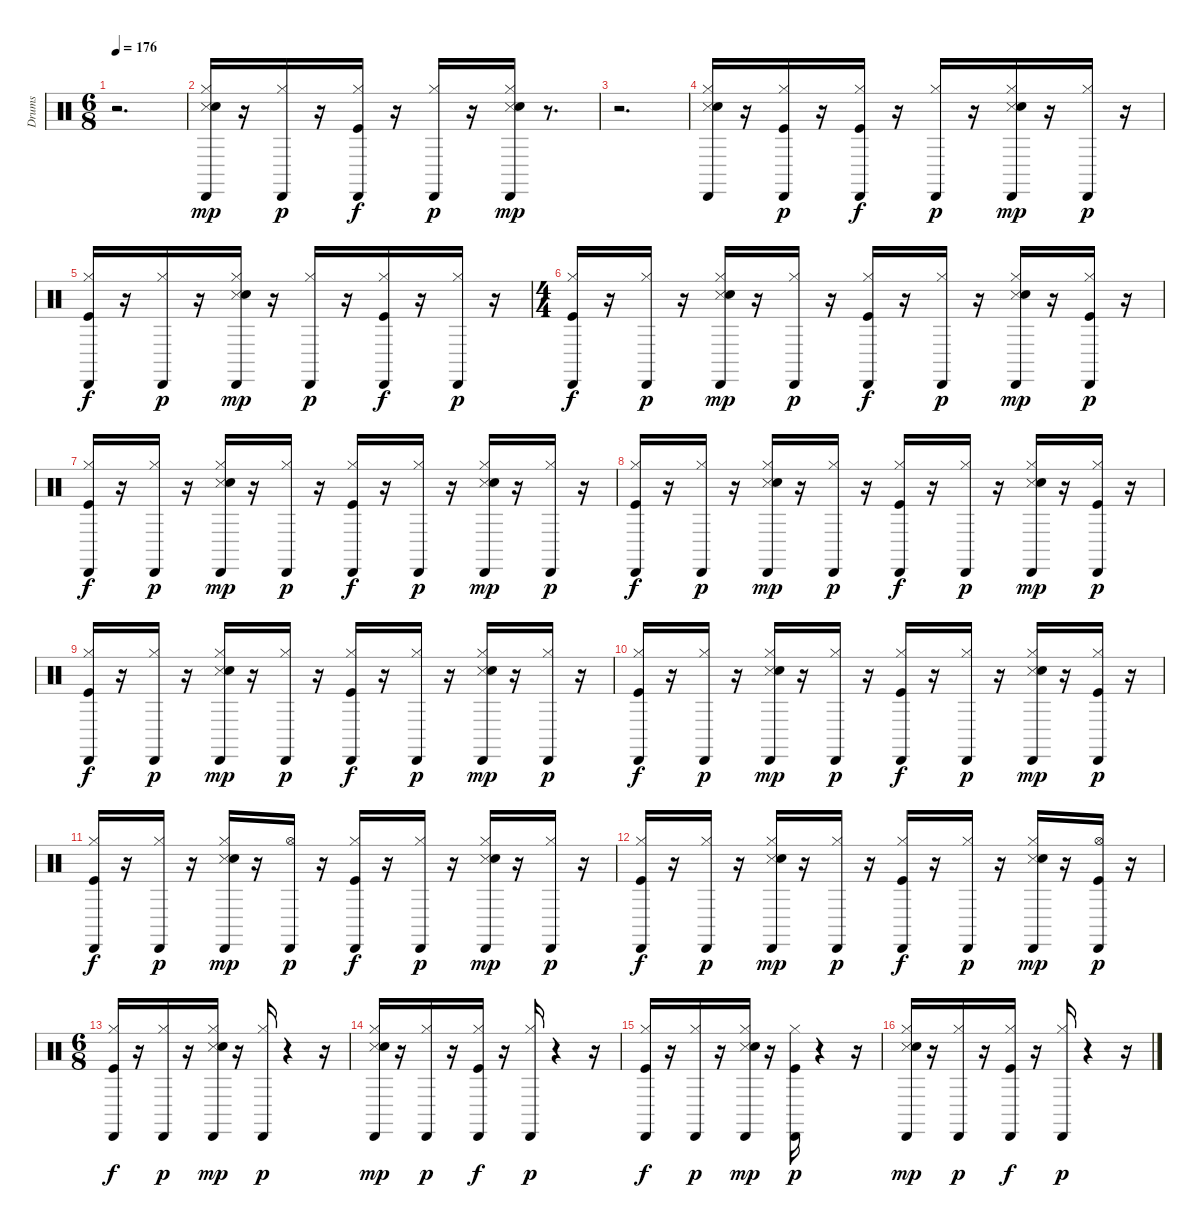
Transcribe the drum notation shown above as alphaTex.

\track ("Drums" "Drums") {instrument percussion}
\staff {score}
\articulation defaults
\ts (6 8)
\tempo 176
\clef neutral
\ks c
r.2{d dy p} |
("Hi-Hat (closed)" "Snare (side stick) 3" "Hand Clap (hit)" "Cabasa (hit)").16{dy mp} r.16 ("Hi-Hat (closed)" "Cabasa (hit)").16{dy p} r.16 ("Kick (hit)" "Hi-Hat (closed)" "Cabasa (hit)").16{dy f} r.16 ("Hi-Hat (closed)" "Cabasa (hit)").16{dy p} r.16 ("Hi-Hat (closed)" "Snare (side stick) 3" "Hand Clap (hit)" "Cabasa (hit)").16{dy mp} r.8{d} |
r.2{d} |
("Hi-Hat (closed)" "Snare (side stick) 3" "Hand Clap (hit)" "Cabasa (hit)").16 r.16 ("Kick (hit)" "Hi-Hat (closed)" "Cabasa (hit)").16{dy p} r.16 ("Kick (hit)" "Hi-Hat (closed)" "Cabasa (hit)").16{dy f} r.16 ("Hi-Hat (closed)" "Cabasa (hit)").16{dy p} r.16 ("Hi-Hat (closed)" "Snare (side stick) 3" "Hand Clap (hit)" "Cabasa (hit)").16{dy mp} r.16 ("Hi-Hat (closed)" "Cabasa (hit)").16{dy p} r.16 |
("Kick (hit)" "Hi-Hat (closed)" "Cabasa (hit)").16{dy f} r.16 ("Hi-Hat (closed)" "Cabasa (hit)").16{dy p} r.16 ("Hi-Hat (closed)" "Snare (side stick) 3" "Hand Clap (hit)" "Cabasa (hit)").16{dy mp} r.16 ("Hi-Hat (closed)" "Cabasa (hit)").16{dy p} r.16 ("Kick (hit)" "Hi-Hat (closed)" "Cabasa (hit)").16{dy f} r.16 ("Hi-Hat (closed)" "Cabasa (hit)").16{dy p} r.16 |
\ts (4 4)
("Kick (hit)" "Hi-Hat (closed)" "Cabasa (hit)").16{dy f} r.16 ("Hi-Hat (closed)" "Cabasa (hit)").16{dy p} r.16 ("Hi-Hat (closed)" "Snare (side stick) 3" "Hand Clap (hit)" "Cabasa (hit)").16{dy mp} r.16 ("Hi-Hat (closed)" "Cabasa (hit)").16{dy p} r.16 ("Kick (hit)" "Hi-Hat (closed)" "Cabasa (hit)").16{dy f} r.16 ("Hi-Hat (closed)" "Cabasa (hit)").16{dy p} r.16 ("Hi-Hat (closed)" "Snare (side stick) 3" "Hand Clap (hit)" "Cabasa (hit)").16{dy mp} r.16 ("Kick (hit)" "Hi-Hat (closed)" "Cabasa (hit)").16{dy p} r.16 |
("Kick (hit)" "Hi-Hat (closed)" "Cabasa (hit)").16{dy f} r.16 ("Hi-Hat (closed)" "Cabasa (hit)").16{dy p} r.16 ("Hi-Hat (closed)" "Snare (side stick) 3" "Hand Clap (hit)" "Cabasa (hit)").16{dy mp} r.16 ("Hi-Hat (closed)" "Cabasa (hit)").16{dy p} r.16 ("Kick (hit)" "Hi-Hat (closed)" "Cabasa (hit)").16{dy f} r.16 ("Hi-Hat (closed)" "Cabasa (hit)").16{dy p} r.16 ("Hi-Hat (closed)" "Snare (side stick) 3" "Hand Clap (hit)" "Cabasa (hit)").16{dy mp} r.16 ("Hi-Hat (closed)" "Cabasa (hit)").16{dy p} r.16 |
("Kick (hit)" "Hi-Hat (closed)" "Cabasa (hit)").16{dy f} r.16 ("Hi-Hat (closed)" "Cabasa (hit)").16{dy p} r.16 ("Hi-Hat (closed)" "Snare (side stick) 3" "Hand Clap (hit)" "Cabasa (hit)").16{dy mp} r.16 ("Hi-Hat (closed)" "Cabasa (hit)").16{dy p} r.16 ("Kick (hit)" "Hi-Hat (closed)" "Cabasa (hit)").16{dy f} r.16 ("Hi-Hat (closed)" "Cabasa (hit)").16{dy p} r.16 ("Hi-Hat (closed)" "Snare (side stick) 3" "Hand Clap (hit)" "Cabasa (hit)").16{dy mp} r.16 ("Kick (hit)" "Hi-Hat (closed)" "Cabasa (hit)").16{dy p} r.16 |
("Kick (hit)" "Hi-Hat (closed)" "Cabasa (hit)").16{dy f} r.16 ("Hi-Hat (closed)" "Cabasa (hit)").16{dy p} r.16 ("Hi-Hat (closed)" "Snare (side stick) 3" "Hand Clap (hit)" "Cabasa (hit)").16{dy mp} r.16 ("Hi-Hat (closed)" "Cabasa (hit)").16{dy p} r.16 ("Kick (hit)" "Hi-Hat (closed)" "Cabasa (hit)").16{dy f} r.16 ("Hi-Hat (closed)" "Cabasa (hit)").16{dy p} r.16 ("Hi-Hat (closed)" "Snare (side stick) 3" "Hand Clap (hit)" "Cabasa (hit)").16{dy mp} r.16 ("Hi-Hat (closed)" "Cabasa (hit)").16{dy p} r.16 |
("Kick (hit)" "Hi-Hat (closed)" "Cabasa (hit)").16{dy f} r.16 ("Hi-Hat (closed)" "Cabasa (hit)").16{dy p} r.16 ("Hi-Hat (closed)" "Snare (side stick) 3" "Hand Clap (hit)" "Cabasa (hit)").16{dy mp} r.16 ("Hi-Hat (closed)" "Cabasa (hit)").16{dy p} r.16 ("Kick (hit)" "Hi-Hat (closed)" "Cabasa (hit)").16{dy f} r.16 ("Hi-Hat (closed)" "Cabasa (hit)").16{dy p} r.16 ("Hi-Hat (closed)" "Snare (side stick) 3" "Hand Clap (hit)" "Cabasa (hit)").16{dy mp} r.16 ("Kick (hit)" "Hi-Hat (closed)" "Cabasa (hit)").16{dy p} r.16 |
("Kick (hit)" "Hi-Hat (closed)" "Cabasa (hit)").16{dy f} r.16 ("Hi-Hat (closed)" "Cabasa (hit)").16{dy p} r.16 ("Hi-Hat (closed)" "Snare (side stick) 3" "Hand Clap (hit)" "Cabasa (hit)").16{dy mp} r.16 ("Hi-Hat (open)" "Cabasa (hit)").16{dy p} r.16 ("Kick (hit)" "Hi-Hat (closed)" "Cabasa (hit)").16{dy f} r.16 ("Hi-Hat (closed)" "Cabasa (hit)").16{dy p} r.16 ("Hi-Hat (closed)" "Snare (side stick) 3" "Hand Clap (hit)" "Cabasa (hit)").16{dy mp} r.16 ("Hi-Hat (closed)" "Cabasa (hit)").16{dy p} r.16 |
("Kick (hit)" "Hi-Hat (closed)" "Cabasa (hit)").16{dy f} r.16 ("Hi-Hat (closed)" "Cabasa (hit)").16{dy p} r.16 ("Hi-Hat (closed)" "Snare (side stick) 3" "Hand Clap (hit)" "Cabasa (hit)").16{dy mp} r.16 ("Hi-Hat (closed)" "Cabasa (hit)").16{dy p} r.16 ("Kick (hit)" "Hi-Hat (closed)" "Cabasa (hit)").16{dy f} r.16 ("Hi-Hat (closed)" "Cabasa (hit)").16{dy p} r.16 ("Hi-Hat (closed)" "Snare (side stick) 3" "Hand Clap (hit)" "Cabasa (hit)").16{dy mp} r.16 ("Kick (hit)" "Hi-Hat (open)" "Cabasa (hit)").16{dy p} r.16 |
\ts (6 8)
("Kick (hit)" "Hi-Hat (closed)" "Cabasa (hit)").16{dy f} r.16 ("Hi-Hat (closed)" "Cabasa (hit)").16{dy p} r.16 ("Hi-Hat (closed)" "Snare (side stick) 3" "Hand Clap (hit)" "Cabasa (hit)").16{dy mp} r.16 ("Hi-Hat (closed)" "Cabasa (hit)").16{dy p} r.4 r.16 |
("Hi-Hat (closed)" "Snare (side stick) 3" "Hand Clap (hit)" "Cabasa (hit)").16{dy mp} r.16 ("Hi-Hat (closed)" "Cabasa (hit)").16{dy p} r.16 ("Kick (hit)" "Hi-Hat (closed)" "Cabasa (hit)").16{dy f} r.16 ("Hi-Hat (closed)" "Cabasa (hit)").16{dy p} r.4 r.16 |
("Kick (hit)" "Hi-Hat (closed)" "Cabasa (hit)").16{dy f} r.16 ("Hi-Hat (closed)" "Cabasa (hit)").16{dy p} r.16 ("Hi-Hat (closed)" "Snare (side stick) 3" "Hand Clap (hit)" "Cabasa (hit)").16{dy mp} r.16 ("Kick (hit)" "Hi-Hat (closed)" "Cabasa (hit)").16{dy p} r.4 r.16 |
("Hi-Hat (closed)" "Snare (side stick) 3" "Hand Clap (hit)" "Cabasa (hit)").16{dy mp} r.16 ("Hi-Hat (closed)" "Cabasa (hit)").16{dy p} r.16 ("Kick (hit)" "Hi-Hat (closed)" "Cabasa (hit)").16{dy f} r.16 ("Hi-Hat (closed)" "Cabasa (hit)").16{dy p} r.4 r.16
